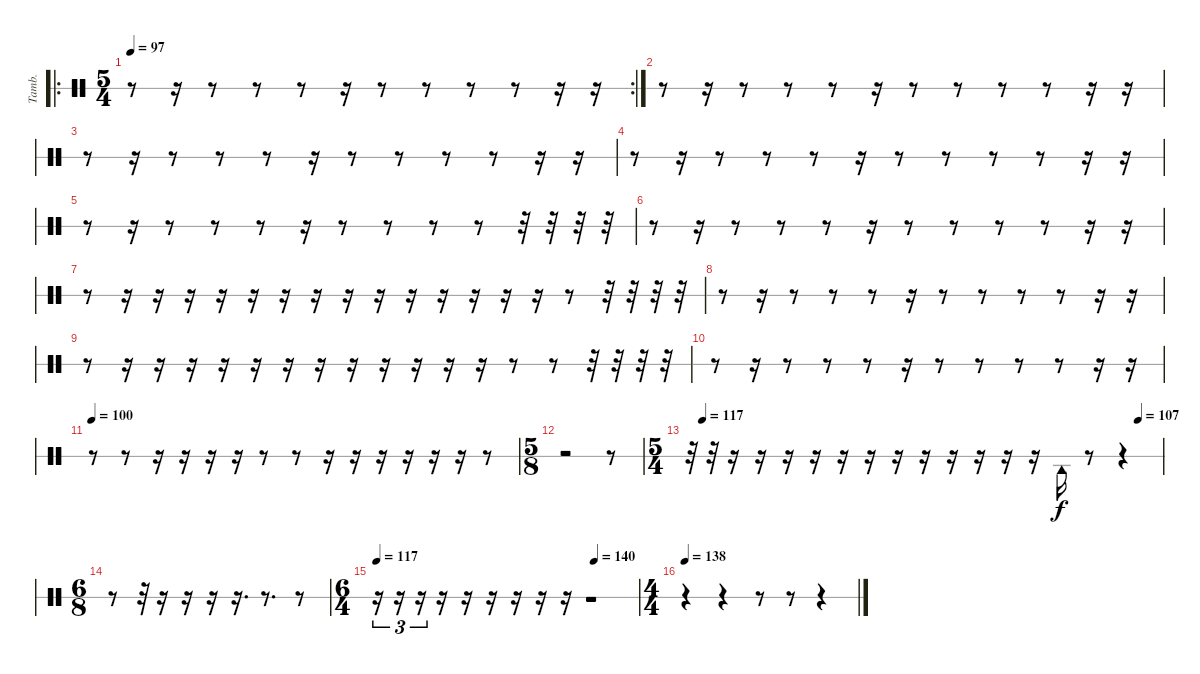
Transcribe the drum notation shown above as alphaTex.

\bracketExtendMode groupsimilarinstruments
\otherSystemsTrackNameOrientation horizontal
\track ("Tambourine" "Tamb.") {instrument percussion}
\staff {score 1}
\articulation defaults
\ro
\rc 2
\ts (5 4)
\beaming (8 6 4)
\tempo 97
\clef neutral
\ks c
r.8{dy f beam Down} r.16{beam Down} r.8{beam Down} r.8{beam Down} r.8{beam Down} r.16{beam Down} r.8{beam Down} r.8{beam Down} r.8{beam Down} r.8{beam Down} r.16{beam Down} r.16{beam Down} |
r.8{beam Down} r.16{beam Down} r.8{beam Down} r.8{beam Down} r.8{beam Down} r.16{beam Down} r.8{beam Down} r.8{beam Down} r.8{beam Down} r.8{beam Down} r.16{beam Down} r.16{beam Down} |
r.8{beam Down} r.16{beam Down} r.8{beam Down} r.8{beam Down} r.8{beam Down} r.16{beam Down} r.8{beam Down} r.8{beam Down} r.8{beam Down} r.8{beam Down} r.16{beam Down} r.16{beam Down} |
r.8{beam Down} r.16{beam Down} r.8{beam Down} r.8{beam Down} r.8{beam Down} r.16{beam Down} r.8{beam Down} r.8{beam Down} r.8{beam Down} r.8{beam Down} r.16{beam Down} r.16{beam Down} |
r.8{beam Down} r.16{beam Down} r.8{beam Down} r.8{beam Down} r.8{beam Down} r.16{beam Down} r.8{beam Down} r.8{beam Down} r.8{beam Down} r.8{beam Down} r.32{beam Down} r.32{beam Down} r.32{beam Down} r.32{beam Down} |
r.8{beam Down} r.16{beam Down} r.8{beam Down} r.8{beam Down} r.8{beam Down} r.16{beam Down} r.8{beam Down} r.8{beam Down} r.8{beam Down} r.8{beam Down} r.16{beam Down} r.16{beam Down} |
r.8{beam Down} r.16{beam Down} r.16{beam Down} r.16{beam Down} r.16{beam Down} r.16{beam Down} r.16{beam Down} r.16{beam Down} r.16{beam Down} r.16{beam Down} r.16{beam Down} r.16{beam Down} r.16{beam Down} r.16{beam Down} r.16{beam Down} r.8{beam Down} r.32{beam Down} r.32{beam Down} r.32{beam Down} r.32{beam Down} |
r.8{beam Down} r.16{beam Down} r.8{beam Down} r.8{beam Down} r.8{beam Down} r.16{beam Down} r.8{beam Down} r.8{beam Down} r.8{beam Down} r.8{beam Down} r.16{beam Down} r.16{beam Down} |
r.8{beam Down} r.16{beam Down} r.16{beam Down} r.16{beam Down} r.16{beam Down} r.16{beam Down} r.16{beam Down} r.16{beam Down} r.16{beam Down} r.16{beam Down} r.16{beam Down} r.16{beam Down} r.16{beam Down} r.8{beam Down} r.8{beam Down} r.32{beam Down} r.32{beam Down} r.32{beam Down} r.32{beam Down} |
r.8{beam Down} r.16{beam Down} r.8{beam Down} r.8{beam Down} r.8{beam Down} r.16{beam Down} r.8{beam Down} r.8{beam Down} r.8{beam Down} r.8{beam Down} r.16{beam Down} r.16{beam Down} |
\tempo 100
r.8{beam Down} r.8{beam Down} r.16{beam Down} r.16{beam Down} r.16{beam Down} r.16{beam Down} r.8{beam Down} r.8{beam Down} r.16{beam Down} r.16{beam Down} r.16{beam Down} r.16{beam Down} r.16{beam Down} r.16{beam Down} r.8{beam Down} |
\ts (5 8)
\beaming (8 3 2)
r.2{beam Down} r.8{beam Down} |
\ts (5 4)
\beaming (8 6 4)
\tempo (117 0.025)
\tempo (107 0.95)
r.32{beam Down} r.32{beam Down} r.16{beam Down} r.16{beam Down} r.16{beam Down} r.16{beam Down} r.16{beam Down} r.16{beam Down} r.16{beam Down} r.16{beam Down} r.16{beam Down} r.16{beam Down} r.16{beam Down} r.16{beam Down} "Tambourine (hit)".16{beam Down} r.8{beam Down} r.4{beam Down} |
\ts (6 8)
\beaming (8 3 3)
r.8{beam Down} r.32{beam Down} r.16{beam Down} r.16{beam Down} r.16{beam Down} r.16{d beam Down} r.8{d beam Down} r.8{beam Down} |
\ts (6 4)
\beaming (8 6 6)
\tempo 117
\tempo (140 0.833333)
r.16{tu (3 2) beam Down} r.16{tu (3 2) beam Down} r.16{tu (3 2) beam Down} r.16{beam Down} r.16{beam Down} r.16{beam Down} r.16{beam Down} r.16{beam Down} r.16{beam Down} r.1{beam Down} |
\ts (4 4)
\beaming (8 2 2 2 2)
\tempo 138
r.4{beam Down} r.4{beam Down} r.8{beam Down} r.8{beam Down} r.4{beam Down}
